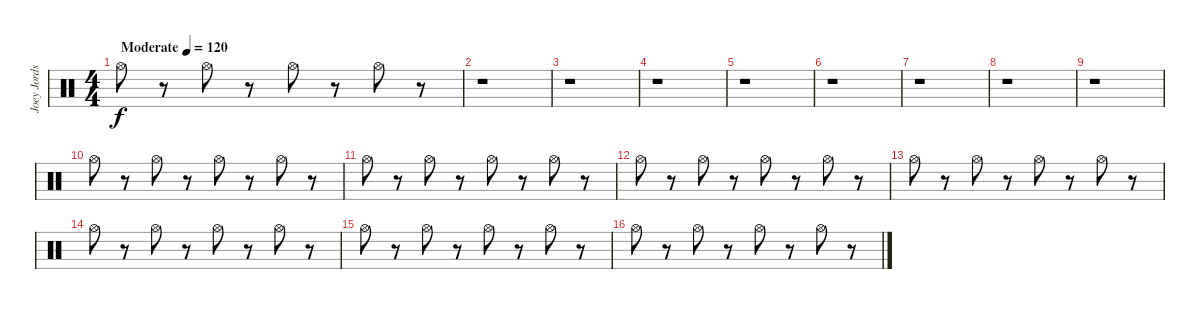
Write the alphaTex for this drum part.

\track ("Joey Jordson" "Joey Jords") {instrument percussion}
\staff {score}
\articulation defaults
\ts (4 4)
\tempo (120 "Moderate")
\tempo 210
\tempo (120 "Moderate")
\clef neutral
\ks c "Hi-Hat (open)".8{dy f}
r.8 "Hi-Hat (open)".8 r.8 "Hi-Hat (open)".8 r.8 "Hi-Hat (open)".8 r.8 |
r.1 |
r.1 |
r.1 |
r.1 |
r.1 |
r.1 |
r.1 |
r.1 |
"Hi-Hat (open)".8 r.8 "Hi-Hat (open)".8 r.8 "Hi-Hat (open)".8 r.8 "Hi-Hat (open)".8 r.8 |
"Hi-Hat (open)".8 r.8 "Hi-Hat (open)".8 r.8 "Hi-Hat (open)".8 r.8 "Hi-Hat (open)".8 r.8 |
"Hi-Hat (open)".8 r.8 "Hi-Hat (open)".8 r.8 "Hi-Hat (open)".8 r.8 "Hi-Hat (open)".8 r.8 |
"Hi-Hat (open)".8 r.8 "Hi-Hat (open)".8 r.8 "Hi-Hat (open)".8 r.8 "Hi-Hat (open)".8 r.8 |
"Hi-Hat (open)".8 r.8 "Hi-Hat (open)".8 r.8 "Hi-Hat (open)".8 r.8 "Hi-Hat (open)".8 r.8 |
"Hi-Hat (open)".8 r.8 "Hi-Hat (open)".8 r.8 "Hi-Hat (open)".8 r.8 "Hi-Hat (open)".8 r.8 |
"Hi-Hat (open)".8 r.8 "Hi-Hat (open)".8 r.8 "Hi-Hat (open)".8 r.8 "Hi-Hat (open)".8 r.8
